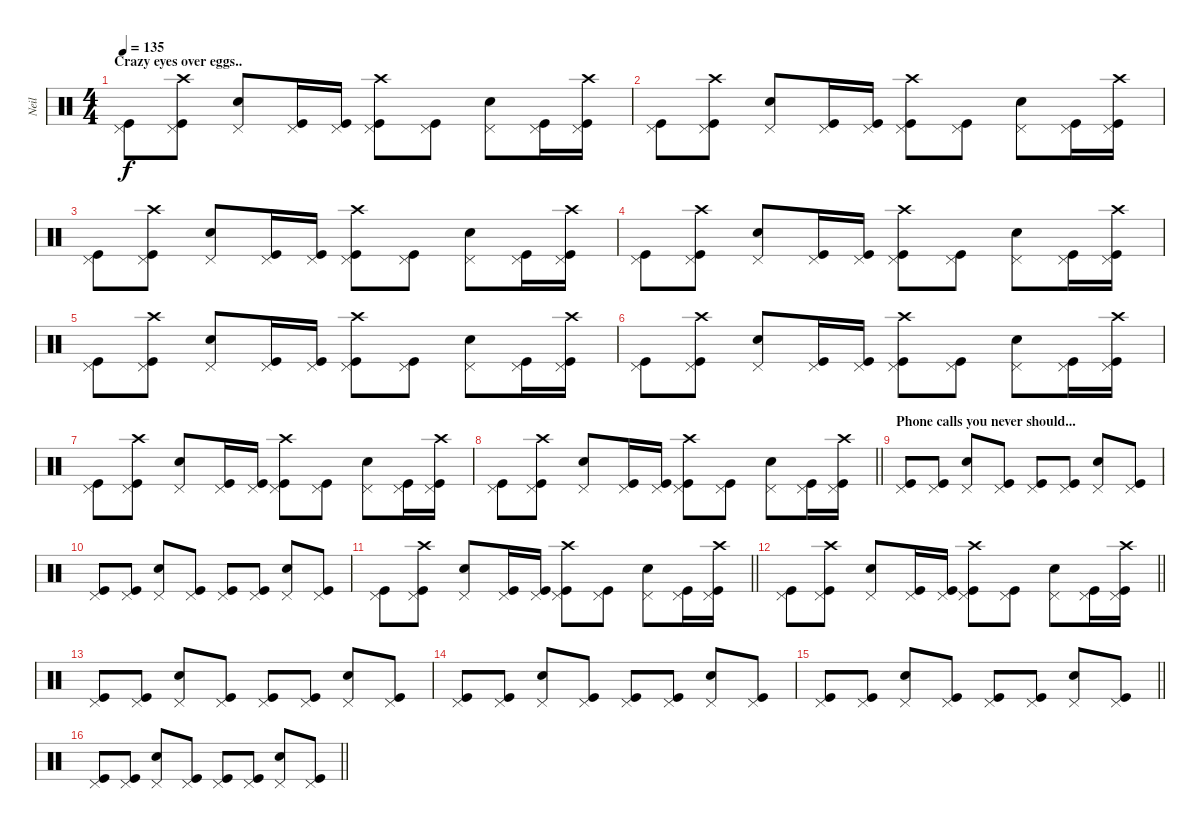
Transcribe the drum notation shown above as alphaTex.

\track ("Neil" "Neil") {instrument percussion}
\staff {score}
\articulation defaults
\ts (4 4)
\section ("" "Crazy eyes over eggs..")
\tempo 135
\clef neutral
\ks c
("Pedal Hi-Hat (hit)" "Kick (hit)").8{dy f} ("Crash high (hit)" "Pedal Hi-Hat (hit)" "Kick (hit)").8 ("Pedal Hi-Hat (hit)" "Snare (hit) 2").8 ("Pedal Hi-Hat (hit)" "Kick (hit)").16 ("Pedal Hi-Hat (hit)" "Kick (hit)").16 ("Crash high (hit)" "Pedal Hi-Hat (hit)" "Kick (hit)").8 ("Pedal Hi-Hat (hit)" "Kick (hit)").8 ("Pedal Hi-Hat (hit)" "Snare (hit) 2").8 ("Pedal Hi-Hat (hit)" "Kick (hit)").16 ("Crash high (hit)" "Pedal Hi-Hat (hit)" "Kick (hit)").16 |
("Pedal Hi-Hat (hit)" "Kick (hit)").8 ("Crash high (hit)" "Pedal Hi-Hat (hit)" "Kick (hit)").8 ("Pedal Hi-Hat (hit)" "Snare (hit) 2").8 ("Pedal Hi-Hat (hit)" "Kick (hit)").16 ("Pedal Hi-Hat (hit)" "Kick (hit)").16 ("Crash high (hit)" "Pedal Hi-Hat (hit)" "Kick (hit)").8 ("Pedal Hi-Hat (hit)" "Kick (hit)").8 ("Pedal Hi-Hat (hit)" "Snare (hit) 2").8 ("Pedal Hi-Hat (hit)" "Kick (hit)").16 ("Crash high (hit)" "Pedal Hi-Hat (hit)" "Kick (hit)").16 |
("Pedal Hi-Hat (hit)" "Kick (hit)").8 ("Crash high (hit)" "Pedal Hi-Hat (hit)" "Kick (hit)").8 ("Pedal Hi-Hat (hit)" "Snare (hit) 2").8 ("Pedal Hi-Hat (hit)" "Kick (hit)").16 ("Pedal Hi-Hat (hit)" "Kick (hit)").16 ("Crash high (hit)" "Pedal Hi-Hat (hit)" "Kick (hit)").8 ("Pedal Hi-Hat (hit)" "Kick (hit)").8 ("Pedal Hi-Hat (hit)" "Snare (hit) 2").8 ("Pedal Hi-Hat (hit)" "Kick (hit)").16 ("Crash high (hit)" "Pedal Hi-Hat (hit)" "Kick (hit)").16 |
("Pedal Hi-Hat (hit)" "Kick (hit)").8 ("Crash high (hit)" "Pedal Hi-Hat (hit)" "Kick (hit)").8 ("Pedal Hi-Hat (hit)" "Snare (hit) 2").8 ("Pedal Hi-Hat (hit)" "Kick (hit)").16 ("Pedal Hi-Hat (hit)" "Kick (hit)").16 ("Crash high (hit)" "Pedal Hi-Hat (hit)" "Kick (hit)").8 ("Pedal Hi-Hat (hit)" "Kick (hit)").8 ("Pedal Hi-Hat (hit)" "Snare (hit) 2").8 ("Pedal Hi-Hat (hit)" "Kick (hit)").16 ("Crash high (hit)" "Pedal Hi-Hat (hit)" "Kick (hit)").16 |
("Pedal Hi-Hat (hit)" "Kick (hit)").8 ("Crash high (hit)" "Pedal Hi-Hat (hit)" "Kick (hit)").8 ("Pedal Hi-Hat (hit)" "Snare (hit) 2").8 ("Pedal Hi-Hat (hit)" "Kick (hit)").16 ("Pedal Hi-Hat (hit)" "Kick (hit)").16 ("Crash high (hit)" "Pedal Hi-Hat (hit)" "Kick (hit)").8 ("Pedal Hi-Hat (hit)" "Kick (hit)").8 ("Pedal Hi-Hat (hit)" "Snare (hit) 2").8 ("Pedal Hi-Hat (hit)" "Kick (hit)").16 ("Crash high (hit)" "Pedal Hi-Hat (hit)" "Kick (hit)").16 |
("Pedal Hi-Hat (hit)" "Kick (hit)").8 ("Crash high (hit)" "Pedal Hi-Hat (hit)" "Kick (hit)").8 ("Pedal Hi-Hat (hit)" "Snare (hit) 2").8 ("Pedal Hi-Hat (hit)" "Kick (hit)").16 ("Pedal Hi-Hat (hit)" "Kick (hit)").16 ("Crash high (hit)" "Pedal Hi-Hat (hit)" "Kick (hit)").8 ("Pedal Hi-Hat (hit)" "Kick (hit)").8 ("Pedal Hi-Hat (hit)" "Snare (hit) 2").8 ("Pedal Hi-Hat (hit)" "Kick (hit)").16 ("Crash high (hit)" "Pedal Hi-Hat (hit)" "Kick (hit)").16 |
("Pedal Hi-Hat (hit)" "Kick (hit)").8 ("Crash high (hit)" "Pedal Hi-Hat (hit)" "Kick (hit)").8 ("Pedal Hi-Hat (hit)" "Snare (hit) 2").8 ("Pedal Hi-Hat (hit)" "Kick (hit)").16 ("Pedal Hi-Hat (hit)" "Kick (hit)").16 ("Crash high (hit)" "Pedal Hi-Hat (hit)" "Kick (hit)").8 ("Pedal Hi-Hat (hit)" "Kick (hit)").8 ("Pedal Hi-Hat (hit)" "Snare (hit) 2").8 ("Pedal Hi-Hat (hit)" "Kick (hit)").16 ("Crash high (hit)" "Pedal Hi-Hat (hit)" "Kick (hit)").16 |
\barLineRight lightlight
("Pedal Hi-Hat (hit)" "Kick (hit)").8 ("Crash high (hit)" "Pedal Hi-Hat (hit)" "Kick (hit)").8 ("Pedal Hi-Hat (hit)" "Snare (hit) 2").8 ("Pedal Hi-Hat (hit)" "Kick (hit)").16 ("Pedal Hi-Hat (hit)" "Kick (hit)").16 ("Crash high (hit)" "Pedal Hi-Hat (hit)" "Kick (hit)").8 ("Pedal Hi-Hat (hit)" "Kick (hit)").8 ("Pedal Hi-Hat (hit)" "Snare (hit) 2").8 ("Pedal Hi-Hat (hit)" "Kick (hit)").16 ("Crash high (hit)" "Pedal Hi-Hat (hit)" "Kick (hit)").16 |
\section ("" "Phone calls you never should...")
("Pedal Hi-Hat (hit)" "Kick (hit)").8 ("Pedal Hi-Hat (hit)" "Kick (hit)").8 ("Pedal Hi-Hat (hit)" "Snare (hit) 2").8 ("Pedal Hi-Hat (hit)" "Kick (hit)").8 ("Pedal Hi-Hat (hit)" "Kick (hit)").8 ("Pedal Hi-Hat (hit)" "Kick (hit)").8 ("Pedal Hi-Hat (hit)" "Snare (hit) 2").8 ("Pedal Hi-Hat (hit)" "Kick (hit)").8 |
("Pedal Hi-Hat (hit)" "Kick (hit)").8 ("Pedal Hi-Hat (hit)" "Kick (hit)").8 ("Pedal Hi-Hat (hit)" "Snare (hit) 2").8 ("Pedal Hi-Hat (hit)" "Kick (hit)").8 ("Pedal Hi-Hat (hit)" "Kick (hit)").8 ("Pedal Hi-Hat (hit)" "Kick (hit)").8 ("Pedal Hi-Hat (hit)" "Snare (hit) 2").8 ("Pedal Hi-Hat (hit)" "Kick (hit)").8 |
\barLineRight lightlight
("Pedal Hi-Hat (hit)" "Kick (hit)").8 ("Crash high (hit)" "Pedal Hi-Hat (hit)" "Kick (hit)").8 ("Pedal Hi-Hat (hit)" "Snare (hit) 2").8 ("Pedal Hi-Hat (hit)" "Kick (hit)").16 ("Pedal Hi-Hat (hit)" "Kick (hit)").16 ("Crash high (hit)" "Pedal Hi-Hat (hit)" "Kick (hit)").8 ("Pedal Hi-Hat (hit)" "Kick (hit)").8 ("Pedal Hi-Hat (hit)" "Snare (hit) 2").8 ("Pedal Hi-Hat (hit)" "Kick (hit)").16 ("Crash high (hit)" "Pedal Hi-Hat (hit)" "Kick (hit)").16 |
\barLineRight lightlight
("Pedal Hi-Hat (hit)" "Kick (hit)").8 ("Crash high (hit)" "Pedal Hi-Hat (hit)" "Kick (hit)").8 ("Pedal Hi-Hat (hit)" "Snare (hit) 2").8 ("Pedal Hi-Hat (hit)" "Kick (hit)").16 ("Pedal Hi-Hat (hit)" "Kick (hit)").16 ("Crash high (hit)" "Pedal Hi-Hat (hit)" "Kick (hit)").8 ("Pedal Hi-Hat (hit)" "Kick (hit)").8 ("Pedal Hi-Hat (hit)" "Snare (hit) 2").8 ("Pedal Hi-Hat (hit)" "Kick (hit)").16 ("Crash high (hit)" "Pedal Hi-Hat (hit)" "Kick (hit)").16 |
("Pedal Hi-Hat (hit)" "Kick (hit)").8 ("Pedal Hi-Hat (hit)" "Kick (hit)").8 ("Pedal Hi-Hat (hit)" "Snare (hit) 2").8 ("Pedal Hi-Hat (hit)" "Kick (hit)").8 ("Pedal Hi-Hat (hit)" "Kick (hit)").8 ("Pedal Hi-Hat (hit)" "Kick (hit)").8 ("Pedal Hi-Hat (hit)" "Snare (hit) 2").8 ("Pedal Hi-Hat (hit)" "Kick (hit)").8 |
("Pedal Hi-Hat (hit)" "Kick (hit)").8 ("Pedal Hi-Hat (hit)" "Kick (hit)").8 ("Pedal Hi-Hat (hit)" "Snare (hit) 2").8 ("Pedal Hi-Hat (hit)" "Kick (hit)").8 ("Pedal Hi-Hat (hit)" "Kick (hit)").8 ("Pedal Hi-Hat (hit)" "Kick (hit)").8 ("Pedal Hi-Hat (hit)" "Snare (hit) 2").8 ("Pedal Hi-Hat (hit)" "Kick (hit)").8 |
\barLineRight lightlight
("Pedal Hi-Hat (hit)" "Kick (hit)").8 ("Pedal Hi-Hat (hit)" "Kick (hit)").8 ("Pedal Hi-Hat (hit)" "Snare (hit) 2").8 ("Pedal Hi-Hat (hit)" "Kick (hit)").8 ("Pedal Hi-Hat (hit)" "Kick (hit)").8 ("Pedal Hi-Hat (hit)" "Kick (hit)").8 ("Pedal Hi-Hat (hit)" "Snare (hit) 2").8 ("Pedal Hi-Hat (hit)" "Kick (hit)").8 |
\barLineRight lightlight
("Pedal Hi-Hat (hit)" "Kick (hit)").8 ("Pedal Hi-Hat (hit)" "Kick (hit)").8 ("Pedal Hi-Hat (hit)" "Snare (hit) 2").8 ("Pedal Hi-Hat (hit)" "Kick (hit)").8 ("Pedal Hi-Hat (hit)" "Kick (hit)").8 ("Pedal Hi-Hat (hit)" "Kick (hit)").8 ("Pedal Hi-Hat (hit)" "Snare (hit) 2").8 ("Pedal Hi-Hat (hit)" "Kick (hit)").8
